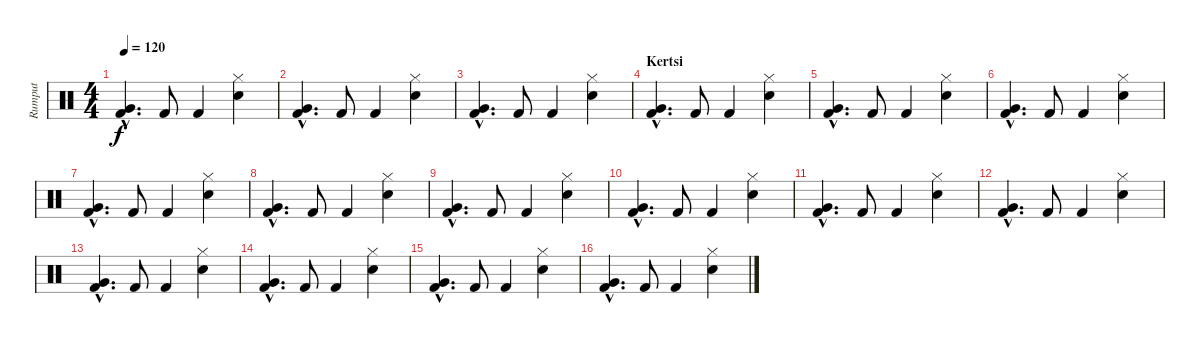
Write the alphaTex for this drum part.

\track ("Rumput" "Rumput") {instrument percussion}
\staff {score}
\articulation defaults
\ts (4 4)
\tempo 120
\clef neutral
\ks c
("Very Low Tom (hit)"{hac} "Kick (hit) 2"{hac}).4{d dy f} "Kick (hit) 2".8 "Kick (hit) 2".4 ("Hi-Hat (closed)" "Snare (hit) 2").4 |
("Very Low Tom (hit)"{hac} "Kick (hit) 2"{hac}).4{d} "Kick (hit) 2".8 "Kick (hit) 2".4 ("Hi-Hat (closed)" "Snare (hit) 2").4 |
("Very Low Tom (hit)"{hac} "Kick (hit) 2"{hac}).4{d} "Kick (hit) 2".8 "Kick (hit) 2".4 ("Hi-Hat (closed)" "Snare (hit) 2").4 |
\section ("" "Kertsi")
("Very Low Tom (hit)"{hac} "Kick (hit) 2"{hac}).4{d} "Kick (hit) 2".8 "Kick (hit) 2".4 ("Hi-Hat (closed)" "Snare (hit) 2").4 |
("Very Low Tom (hit)"{hac} "Kick (hit) 2"{hac}).4{d} "Kick (hit) 2".8 "Kick (hit) 2".4 ("Hi-Hat (closed)" "Snare (hit) 2").4 |
("Very Low Tom (hit)"{hac} "Kick (hit) 2"{hac}).4{d} "Kick (hit) 2".8 "Kick (hit) 2".4 ("Hi-Hat (closed)" "Snare (hit) 2").4 |
("Very Low Tom (hit)"{hac} "Kick (hit) 2"{hac}).4{d} "Kick (hit) 2".8 "Kick (hit) 2".4 ("Hi-Hat (closed)" "Snare (hit) 2").4 |
("Very Low Tom (hit)"{hac} "Kick (hit) 2"{hac}).4{d} "Kick (hit) 2".8 "Kick (hit) 2".4 ("Hi-Hat (closed)" "Snare (hit) 2").4 |
("Very Low Tom (hit)"{hac} "Kick (hit) 2"{hac}).4{d} "Kick (hit) 2".8 "Kick (hit) 2".4 ("Hi-Hat (closed)" "Snare (hit) 2").4 |
("Very Low Tom (hit)"{hac} "Kick (hit) 2"{hac}).4{d} "Kick (hit) 2".8 "Kick (hit) 2".4 ("Hi-Hat (closed)" "Snare (hit) 2").4 |
("Very Low Tom (hit)"{hac} "Kick (hit) 2"{hac}).4{d} "Kick (hit) 2".8 "Kick (hit) 2".4 ("Hi-Hat (closed)" "Snare (hit) 2").4 |
("Very Low Tom (hit)"{hac} "Kick (hit) 2"{hac}).4{d} "Kick (hit) 2".8 "Kick (hit) 2".4 ("Hi-Hat (closed)" "Snare (hit) 2").4 |
("Very Low Tom (hit)"{hac} "Kick (hit) 2"{hac}).4{d} "Kick (hit) 2".8 "Kick (hit) 2".4 ("Hi-Hat (closed)" "Snare (hit) 2").4 |
("Very Low Tom (hit)"{hac} "Kick (hit) 2"{hac}).4{d} "Kick (hit) 2".8 "Kick (hit) 2".4 ("Hi-Hat (closed)" "Snare (hit) 2").4 |
("Very Low Tom (hit)"{hac} "Kick (hit) 2"{hac}).4{d} "Kick (hit) 2".8 "Kick (hit) 2".4 ("Hi-Hat (closed)" "Snare (hit) 2").4 |
("Very Low Tom (hit)"{hac} "Kick (hit) 2"{hac}).4{d} "Kick (hit) 2".8 "Kick (hit) 2".4 ("Hi-Hat (closed)" "Snare (hit) 2").4
